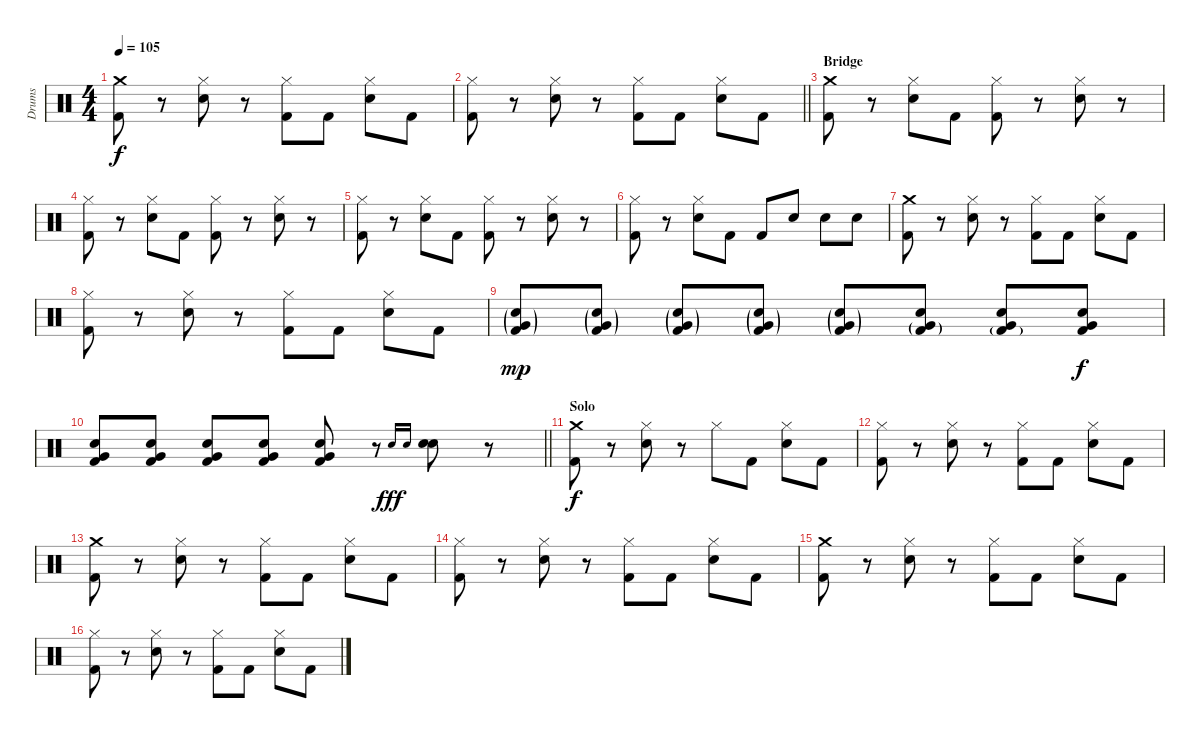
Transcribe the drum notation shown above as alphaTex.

\track ("Drums" "Drums") {instrument percussion}
\staff {score}
\articulation defaults
\ts (4 4)
\tempo 105
\clef neutral
\ks c
("Crash medium (hit)" "Kick (hit) 2").8{dy f} r.8 ("Hi-Hat (closed)" "Snare (hit) 2").8 r.8 ("Hi-Hat (closed)" "Kick (hit) 2").8 "Kick (hit) 2".8 ("Hi-Hat (closed)" "Snare (hit) 2").8 "Kick (hit) 2".8 |
\barLineRight lightlight
("Hi-Hat (closed)" "Kick (hit) 2").8 r.8 ("Hi-Hat (closed)" "Snare (hit) 2").8 r.8 ("Hi-Hat (closed)" "Kick (hit) 2").8 "Kick (hit) 2".8 ("Hi-Hat (closed)" "Snare (hit) 2").8 "Kick (hit) 2".8 |
\section ("" "Bridge")
("Crash medium (hit)" "Kick (hit) 2").8 r.8 ("Hi-Hat (closed)" "Snare (hit) 2").8 "Kick (hit) 2".8 ("Hi-Hat (closed)" "Kick (hit) 2").8 r.8 ("Hi-Hat (closed)" "Snare (hit) 2").8 r.8 |
("Hi-Hat (closed)" "Kick (hit) 2").8 r.8 ("Hi-Hat (closed)" "Snare (hit) 2").8 "Kick (hit) 2".8 ("Hi-Hat (closed)" "Kick (hit) 2").8 r.8 ("Hi-Hat (closed)" "Snare (hit) 2").8 r.8 |
("Hi-Hat (closed)" "Kick (hit) 2").8 r.8 ("Hi-Hat (closed)" "Snare (hit) 2").8 "Kick (hit) 2".8 ("Hi-Hat (closed)" "Kick (hit) 2").8 r.8 ("Hi-Hat (closed)" "Snare (hit) 2").8 r.8 |
("Hi-Hat (closed)" "Kick (hit) 2").8 r.8 ("Hi-Hat (closed)" "Snare (hit) 2").8 "Kick (hit) 2".8 "Kick (hit) 2".8 "Snare (hit) 2".8 "Snare (hit) 2".8 "Snare (hit) 2".8 |
("Crash medium (hit)" "Kick (hit) 2").8 r.8 ("Hi-Hat (closed)" "Snare (hit) 2").8 r.8 ("Hi-Hat (closed)" "Kick (hit) 2").8 "Kick (hit) 2".8 ("Hi-Hat (closed)" "Snare (hit) 2").8 "Kick (hit) 2".8 |
("Hi-Hat (closed)" "Kick (hit) 2").8 r.8 ("Hi-Hat (closed)" "Snare (hit) 2").8 r.8 ("Hi-Hat (closed)" "Kick (hit) 2").8 "Kick (hit) 2".8 ("Hi-Hat (closed)" "Snare (hit) 2").8 "Kick (hit) 2".8 |
("Snare (hit) 2"{g} "Very Low Tom (hit)"{g} "Kick (hit) 2"{g}).8{dy mp} ("Snare (hit) 2"{g} "Very Low Tom (hit)"{g} "Kick (hit) 2"{g}).8 ("Snare (hit) 2"{g} "Very Low Tom (hit)"{g} "Kick (hit) 2"{g}).8 ("Snare (hit) 2"{g} "Very Low Tom (hit)"{g} "Kick (hit) 2"{g}).8 ("Snare (hit) 2"{g} "Very Low Tom (hit)"{g} "Kick (hit) 2"{g}).8 ("Snare (hit) 2" "Very Low Tom (hit)"{g} "Kick (hit) 2"{g}).8 ("Snare (hit) 2" "Very Low Tom (hit)" "Kick (hit) 2"{g}).8 ("Snare (hit) 2" "Very Low Tom (hit)" "Kick (hit) 2").8{dy f} |
\barLineRight lightlight
("Snare (hit) 2" "Very Low Tom (hit)" "Kick (hit) 2").8 ("Snare (hit) 2" "Very Low Tom (hit)" "Kick (hit) 2").8 ("Snare (hit) 2" "Very Low Tom (hit)" "Kick (hit) 2").8 ("Snare (hit) 2" "Very Low Tom (hit)" "Kick (hit) 2").8 ("Snare (hit) 2" "Very Low Tom (hit)" "Kick (hit) 2").8 r.8 "Snare (hit) 2".16{gr onbeat dy fff} "Snare (hit) 2".16{gr onbeat} ("Snare (hit) 2" "Snare (hit) 2").8 r.8 |
\section ("" "Solo")
("Crash medium (hit)" "Kick (hit) 2").8{dy f} r.8 ("Hi-Hat (closed)" "Snare (hit) 2").8 r.8 "Hi-Hat (closed)".8 "Kick (hit) 2".8 ("Hi-Hat (closed)" "Snare (hit) 2").8 "Kick (hit) 2".8 |
("Hi-Hat (closed)" "Kick (hit) 2").8 r.8 ("Hi-Hat (closed)" "Snare (hit) 2").8 r.8 ("Hi-Hat (closed)" "Kick (hit) 2").8 "Kick (hit) 2".8 ("Hi-Hat (closed)" "Snare (hit) 2").8 "Kick (hit) 2".8 |
("Crash medium (hit)" "Kick (hit) 2").8 r.8 ("Hi-Hat (closed)" "Snare (hit) 2").8 r.8 ("Hi-Hat (closed)" "Kick (hit) 2").8 "Kick (hit) 2".8 ("Hi-Hat (closed)" "Snare (hit) 2").8 "Kick (hit) 2".8 |
("Hi-Hat (closed)" "Kick (hit) 2").8 r.8 ("Hi-Hat (closed)" "Snare (hit) 2").8 r.8 ("Hi-Hat (closed)" "Kick (hit) 2").8 "Kick (hit) 2".8 ("Hi-Hat (closed)" "Snare (hit) 2").8 "Kick (hit) 2".8 |
("Crash medium (hit)" "Kick (hit) 2").8 r.8 ("Hi-Hat (closed)" "Snare (hit) 2").8 r.8 ("Hi-Hat (closed)" "Kick (hit) 2").8 "Kick (hit) 2".8 ("Hi-Hat (closed)" "Snare (hit) 2").8 "Kick (hit) 2".8 |
("Hi-Hat (closed)" "Kick (hit) 2").8 r.8 ("Hi-Hat (closed)" "Snare (hit) 2").8 r.8 ("Hi-Hat (closed)" "Kick (hit) 2").8 "Kick (hit) 2".8 ("Hi-Hat (closed)" "Snare (hit) 2").8 "Kick (hit) 2".8
